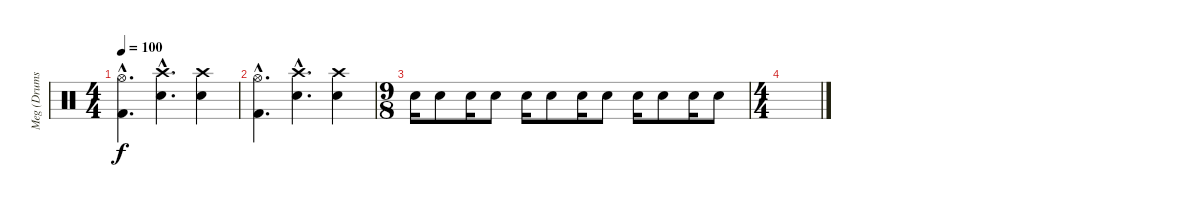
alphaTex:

\track ("Meg (Drums)" "Meg (Drums") {instrument percussion}
\staff {score}
\articulation defaults
\ts (4 4)
\tempo 100
\clef neutral
\ks c
("Hi-Hat (open)"{hac} "Kick (hit) 2"{hac}).4{d dy f} ("Crash high (hit)"{hac} "Snare (hit) 2"{hac}).4{d} ("Crash high (hit)" "Snare (hit) 2").4 |
("Hi-Hat (open)"{hac} "Kick (hit) 2"{hac}).4{d} ("Crash high (hit)"{hac} "Snare (hit) 2"{hac}).4{d} ("Crash high (hit)" "Snare (hit) 2").4 |
\ts (9 8)
"Snare (hit) 2".16 "Snare (hit) 2".8 "Snare (hit) 2".16 "Snare (hit) 2".8 "Snare (hit) 2".16 "Snare (hit) 2".8 "Snare (hit) 2".16 "Snare (hit) 2".8 "Snare (hit) 2".16 "Snare (hit) 2".8 "Snare (hit) 2".16 "Snare (hit) 2".8 |
\ts (4 4)
